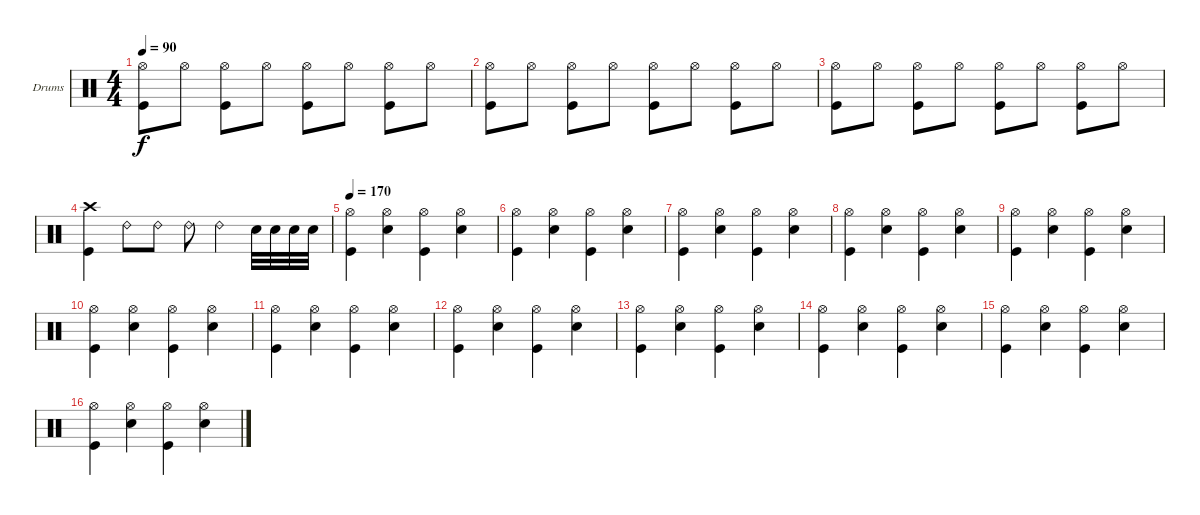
\defaultSystemsLayout 4
\bracketExtendMode groupsimilarinstruments
\firstSystemTrackNameOrientation horizontal
\otherSystemsTrackNameOrientation horizontal
\track ("Drumkit" "Drums") {instrument percussion}
\staff {score}
\articulation defaults
\ts (4 4)
\tempo 90
\clef neutral
\ks c
("Kick (hit)" "Hi-Hat (open)").8{dy f} "Hi-Hat (open)".8 ("Kick (hit)" "Hi-Hat (open)").8 "Hi-Hat (open)".8 ("Kick (hit)" "Hi-Hat (open)").8 "Hi-Hat (open)".8 ("Kick (hit)" "Hi-Hat (open)").8 "Hi-Hat (open)".8 |
("Kick (hit)" "Hi-Hat (open)").8 "Hi-Hat (open)".8 ("Kick (hit)" "Hi-Hat (open)").8 "Hi-Hat (open)".8 ("Kick (hit)" "Hi-Hat (open)").8 "Hi-Hat (open)".8 ("Kick (hit)" "Hi-Hat (open)").8 "Hi-Hat (open)".8 |
("Kick (hit)" "Hi-Hat (open)").8 "Hi-Hat (open)".8 ("Kick (hit)" "Hi-Hat (open)").8 "Hi-Hat (open)".8 ("Hi-Hat (open)" "Kick (hit)").8 "Hi-Hat (open)".8 ("Kick (hit)" "Hi-Hat (open)").8 "Hi-Hat (open)".8 |
("Kick (hit)" "Crash high (hit)").4 "Ride (bell) 2".8 "Ride (bell) 2".8 "Ride (bell) 2".8 "Ride (bell) 2".4 "Snare (hit) 2".32 "Snare (hit) 2".32 "Snare (hit) 2".32 "Snare (hit) 2".32 |
\tempo 170
("Kick (hit)" "Hi-Hat (open)").4 ("Snare (hit) 2" "Hi-Hat (open)").4 ("Kick (hit)" "Hi-Hat (open)").4 ("Snare (hit) 2" "Hi-Hat (open)").4 |
("Kick (hit)" "Hi-Hat (open)").4 ("Snare (hit) 2" "Hi-Hat (open)").4 ("Kick (hit)" "Hi-Hat (open)").4 ("Snare (hit) 2" "Hi-Hat (open)").4 |
("Kick (hit)" "Hi-Hat (open)").4 ("Snare (hit) 2" "Hi-Hat (open)").4 ("Kick (hit)" "Hi-Hat (open)").4 ("Snare (hit) 2" "Hi-Hat (open)").4 |
("Kick (hit)" "Hi-Hat (open)").4 ("Snare (hit) 2" "Hi-Hat (open)").4 ("Kick (hit)" "Hi-Hat (open)").4 ("Snare (hit) 2" "Hi-Hat (open)").4 |
("Kick (hit)" "Hi-Hat (open)").4 ("Snare (hit) 2" "Hi-Hat (open)").4 ("Kick (hit)" "Hi-Hat (open)").4 ("Snare (hit) 2" "Hi-Hat (open)").4 |
("Kick (hit)" "Hi-Hat (open)").4 ("Snare (hit) 2" "Hi-Hat (open)").4 ("Kick (hit)" "Hi-Hat (open)").4 ("Snare (hit) 2" "Hi-Hat (open)").4 |
("Kick (hit)" "Hi-Hat (open)").4 ("Snare (hit) 2" "Hi-Hat (open)").4 ("Kick (hit)" "Hi-Hat (open)").4 ("Snare (hit) 2" "Hi-Hat (open)").4 |
("Kick (hit)" "Hi-Hat (open)").4 ("Snare (hit) 2" "Hi-Hat (open)").4 ("Kick (hit)" "Hi-Hat (open)").4 ("Snare (hit) 2" "Hi-Hat (open)").4 |
("Kick (hit)" "Hi-Hat (open)").4 ("Snare (hit) 2" "Hi-Hat (open)").4 ("Kick (hit)" "Hi-Hat (open)").4 ("Snare (hit) 2" "Hi-Hat (open)").4 |
("Kick (hit)" "Hi-Hat (open)").4 ("Snare (hit) 2" "Hi-Hat (open)").4 ("Kick (hit)" "Hi-Hat (open)").4 ("Snare (hit) 2" "Hi-Hat (open)").4 |
("Kick (hit)" "Hi-Hat (open)").4 ("Snare (hit) 2" "Hi-Hat (open)").4 ("Kick (hit)" "Hi-Hat (open)").4 ("Snare (hit) 2" "Hi-Hat (open)").4 |
("Kick (hit)" "Hi-Hat (open)").4 ("Snare (hit) 2" "Hi-Hat (open)").4 ("Kick (hit)" "Hi-Hat (open)").4 ("Snare (hit) 2" "Hi-Hat (open)").4
